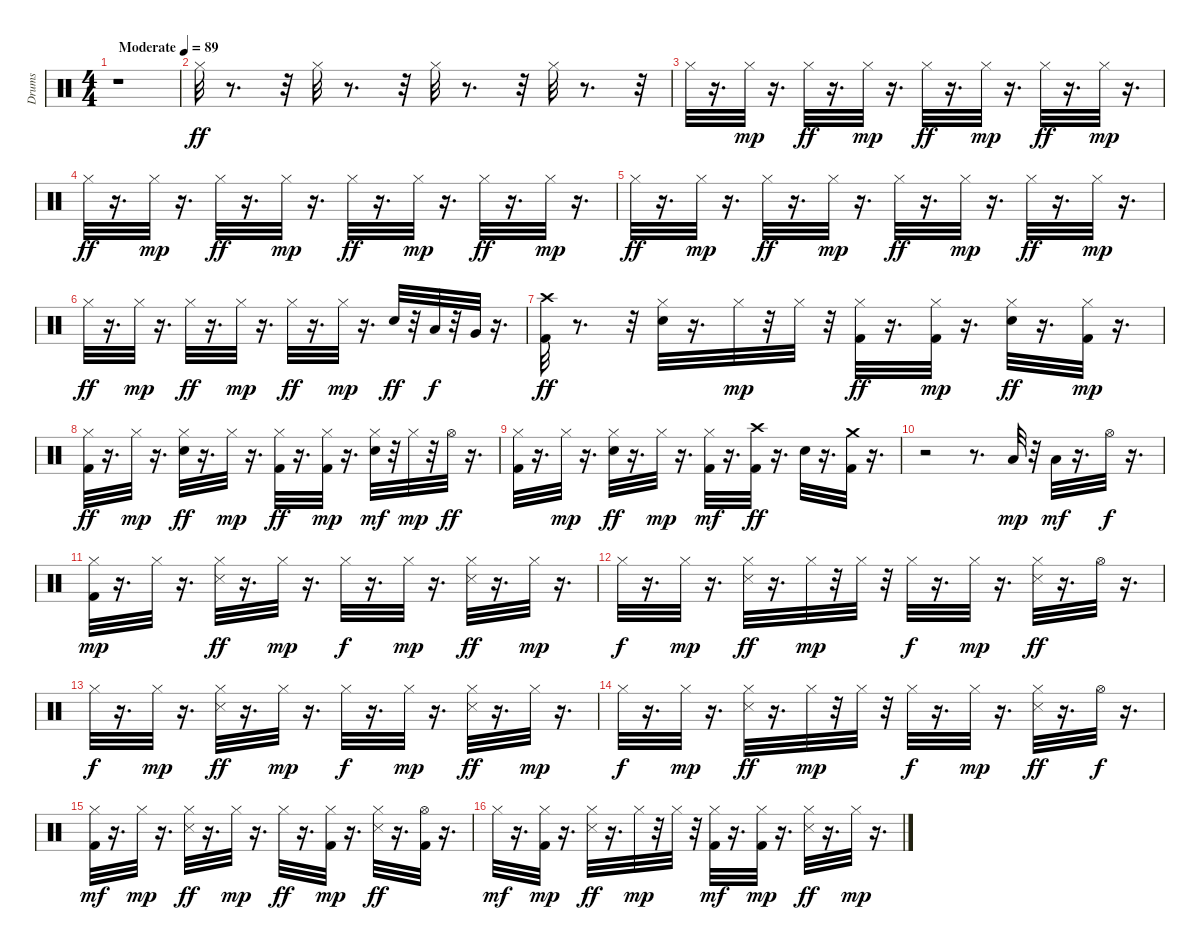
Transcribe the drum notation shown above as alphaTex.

\track ("Drums   " "Drums   ") {instrument percussion}
\staff {score}
\articulation defaults
\ts (4 4)
\tempo (89 "Moderate")
\clef neutral
\ks c
r.1{dy ff} |
"Hi-Hat (closed)".32 r.8{d} r.32 "Hi-Hat (closed)".32 r.8{d} r.32 "Hi-Hat (closed)".32 r.8{d} r.32 "Hi-Hat (closed)".32 r.8{d} r.32 |
"Hi-Hat (closed)".32 r.16{d} "Hi-Hat (closed)".32{dy mp} r.16{d} "Hi-Hat (closed)".32{dy ff} r.16{d} "Hi-Hat (closed)".32{dy mp} r.16{d} "Hi-Hat (closed)".32{dy ff} r.16{d} "Hi-Hat (closed)".32{dy mp} r.16{d} "Hi-Hat (closed)".32{dy ff} r.16{d} "Hi-Hat (closed)".32{dy mp} r.16{d} |
"Hi-Hat (closed)".32{dy ff} r.16{d} "Hi-Hat (closed)".32{dy mp} r.16{d} "Hi-Hat (closed)".32{dy ff} r.16{d} "Hi-Hat (closed)".32{dy mp} r.16{d} "Hi-Hat (closed)".32{dy ff} r.16{d} "Hi-Hat (closed)".32{dy mp} r.16{d} "Hi-Hat (closed)".32{dy ff} r.16{d} "Hi-Hat (closed)".32{dy mp} r.16{d} |
"Hi-Hat (closed)".32{dy ff} r.16{d} "Hi-Hat (closed)".32{dy mp} r.16{d} "Hi-Hat (closed)".32{dy ff} r.16{d} "Hi-Hat (closed)".32{dy mp} r.16{d} "Hi-Hat (closed)".32{dy ff} r.16{d} "Hi-Hat (closed)".32{dy mp} r.16{d} "Hi-Hat (closed)".32{dy ff} r.16{d} "Hi-Hat (closed)".32{dy mp} r.16{d} |
"Hi-Hat (closed)".32{dy ff} r.16{d} "Hi-Hat (closed)".32{dy mp} r.16{d} "Hi-Hat (closed)".32{dy ff} r.16{d} "Hi-Hat (closed)".32{dy mp} r.16{d} "Hi-Hat (closed)".32{dy ff} r.16{d} "Hi-Hat (closed)".32{dy mp} r.16{d} "Electric Snare (hit)".32{dy ff} r.32 "Low Tom (hit)".32{dy f} r.32 "Very Low Tom (hit)".32 r.16{d} |
("Kick (hit) 2" "Crash high (hit)").32{dy ff} r.8{d} r.32 ("Electric Snare (hit)" "Hi-Hat (closed)").32 r.16{d} "Hi-Hat (closed)".32{dy mp} r.32 "Hi-Hat (closed)".32 r.32 ("Kick (hit) 2" "Hi-Hat (closed)").32{dy ff} r.16{d} ("Kick (hit) 2" "Hi-Hat (closed)").32{dy mp} r.16{d} ("Electric Snare (hit)" "Hi-Hat (closed)").32{dy ff} r.16{d} ("Kick (hit) 2" "Hi-Hat (closed)").32{dy mp} r.16{d} |
("Kick (hit) 2" "Hi-Hat (closed)").32{dy ff} r.16{d} "Hi-Hat (closed)".32{dy mp} r.16{d} ("Electric Snare (hit)" "Hi-Hat (closed)").32{dy ff} r.16{d} "Hi-Hat (closed)".32{dy mp} r.16{d} ("Kick (hit) 2" "Hi-Hat (closed)").32{dy ff} r.16{d} ("Kick (hit) 2" "Hi-Hat (closed)").32{dy mp} r.16{d} ("Electric Snare (hit)" "Hi-Hat (closed)").32{dy mf} r.32 "Hi-Hat (closed)".32{dy mp} r.32 "Hi-Hat (open)".32{dy ff} r.16{d} |
("Kick (hit) 2" "Hi-Hat (closed)").32 r.16{d} "Hi-Hat (closed)".32{dy mp} r.16{d} ("Electric Snare (hit)" "Hi-Hat (closed)").32{dy ff} r.16{d} "Hi-Hat (closed)".32{dy mp} r.16{d} ("Kick (hit) 2" "Hi-Hat (closed)").32{dy mf} r.16{d} ("Kick (hit) 2" "Crash high (hit)").32{dy ff} r.16{d} "Electric Snare (hit)".32 r.16{d} ("Kick (hit) 2" "Crash medium (hit)").32 r.16{d} |
r.2 r.8{d} "Low Tom (hit)".32{dy mp} r.32 "Low Tom (hit)".32{dy mf} r.16{d} "Hi-Hat (open)".32{dy f} r.16{d} |
("Kick (hit) 2" "Hi-Hat (closed)").32{dy mp} r.16{d} "Hi-Hat (closed)".32 r.16{d} ("Snare (side stick) 3" "Hi-Hat (closed)").32{dy ff} r.16{d} "Hi-Hat (closed)".32{dy mp} r.16{d} "Hi-Hat (closed)".32{dy f} r.16{d} "Hi-Hat (closed)".32{dy mp} r.16{d} ("Snare (side stick) 3" "Hi-Hat (closed)").32{dy ff} r.16{d} "Hi-Hat (closed)".32{dy mp} r.16{d} |
"Hi-Hat (closed)".32{dy f} r.16{d} "Hi-Hat (closed)".32{dy mp} r.16{d} ("Snare (side stick) 3" "Hi-Hat (closed)").32{dy ff} r.16{d} "Hi-Hat (closed)".32{dy mp} r.32 "Hi-Hat (closed)".32 r.32 "Hi-Hat (closed)".32{dy f} r.16{d} "Hi-Hat (closed)".32{dy mp} r.16{d} ("Snare (side stick) 3" "Hi-Hat (closed)").32{dy ff} r.16{d} "Hi-Hat (open)".32 r.16{d} |
"Hi-Hat (closed)".32{dy f} r.16{d} "Hi-Hat (closed)".32{dy mp} r.16{d} ("Snare (side stick) 3" "Hi-Hat (closed)").32{dy ff} r.16{d} "Hi-Hat (closed)".32{dy mp} r.16{d} "Hi-Hat (closed)".32{dy f} r.16{d} "Hi-Hat (closed)".32{dy mp} r.16{d} ("Snare (side stick) 3" "Hi-Hat (closed)").32{dy ff} r.16{d} "Hi-Hat (closed)".32{dy mp} r.16{d} |
"Hi-Hat (closed)".32{dy f} r.16{d} "Hi-Hat (closed)".32{dy mp} r.16{d} ("Snare (side stick) 3" "Hi-Hat (closed)").32{dy ff} r.16{d} "Hi-Hat (closed)".32{dy mp} r.32 "Hi-Hat (closed)".32 r.32 "Hi-Hat (closed)".32{dy f} r.16{d} "Hi-Hat (closed)".32{dy mp} r.16{d} ("Snare (side stick) 3" "Hi-Hat (closed)").32{dy ff} r.16{d} "Hi-Hat (open)".32{dy f} r.16{d} |
("Kick (hit) 2" "Hi-Hat (closed)").32{dy mf} r.16{d} "Hi-Hat (closed)".32{dy mp} r.16{d} ("Snare (side stick) 3" "Hi-Hat (closed)").32{dy ff} r.16{d} "Hi-Hat (closed)".32{dy mp} r.16{d} "Hi-Hat (closed)".32{dy ff} r.16{d} ("Kick (hit) 2" "Hi-Hat (closed)").32{dy mp} r.16{d} ("Snare (side stick) 3" "Hi-Hat (closed)").32{dy ff} r.16{d} ("Kick (hit) 2" "Hi-Hat (open)").32 r.16{d} |
"Hi-Hat (closed)".32{dy mf} r.16{d} ("Kick (hit) 2" "Hi-Hat (closed)").32{dy mp} r.16{d} ("Snare (side stick) 3" "Hi-Hat (closed)").32{dy ff} r.16{d} "Hi-Hat (closed)".32{dy mp} r.32 "Hi-Hat (closed)".32 r.32 ("Kick (hit) 2" "Hi-Hat (closed)").32{dy mf} r.16{d} ("Kick (hit) 2" "Hi-Hat (closed)").32{dy mp} r.16{d} ("Snare (side stick) 3" "Hi-Hat (closed)").32{dy ff} r.16{d} "Hi-Hat (closed)".32{dy mp} r.16{d}
